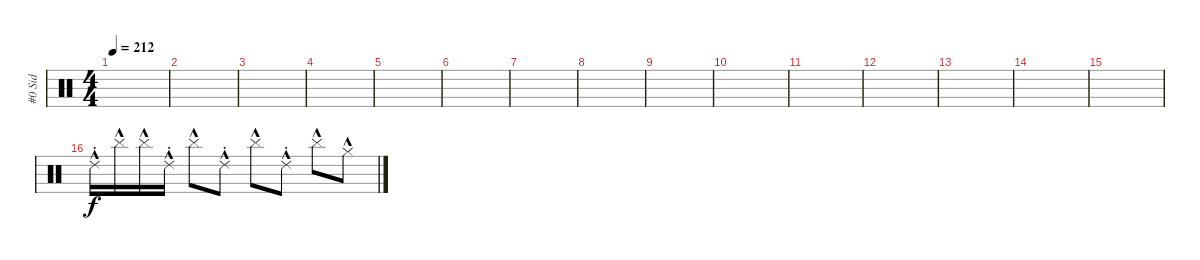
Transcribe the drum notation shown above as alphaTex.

\track ("#0 Sid" "#0 Sid") {instrument percussion}
\staff {score}
\articulation defaults
\ts (4 4)
\tempo 212
\clef neutral
\ks c
|
|
|
|
|
|
|
|
|
|
|
|
|
|
|
"Ride (choke) 2"{hac}.16 "Cymbal (hit)"{hac}.16 "Cymbal (hit)"{hac}.16 "Ride (choke) 2"{hac}.16 "Cymbal (hit)"{hac}.8 "Ride (choke) 2"{hac}.8 "Cymbal (hit)"{hac}.8 "Ride (choke) 2"{hac}.8 "Cymbal (hit)"{hac}.8 "Hi-Hat (closed)"{hac}.8
